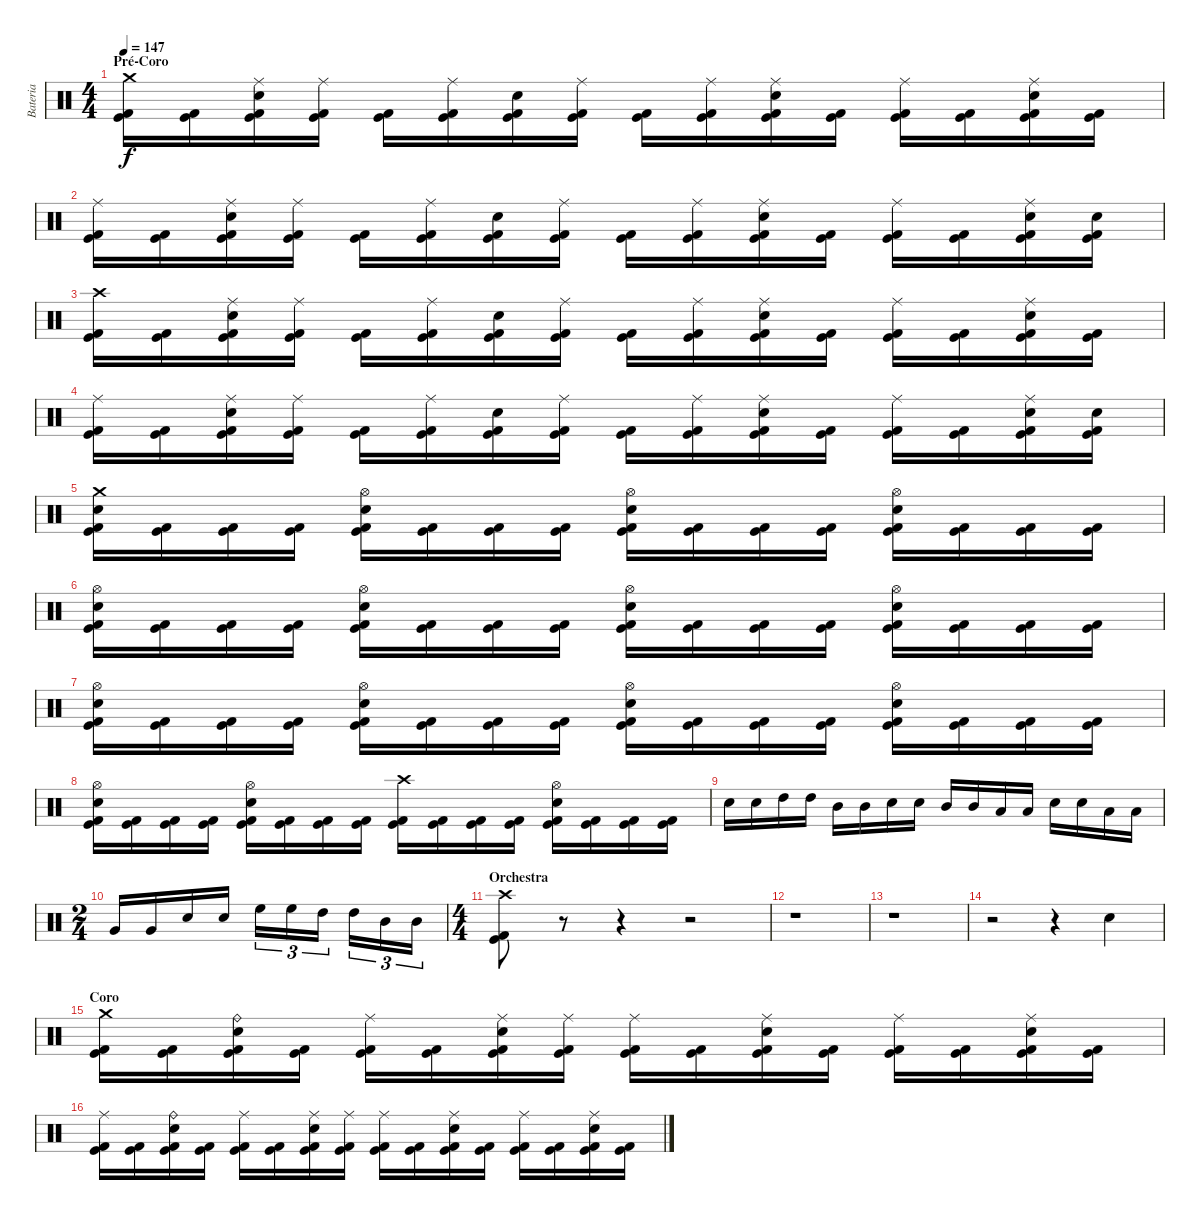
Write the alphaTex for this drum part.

\track ("Bateria" "Bateria") {instrument percussion}
\staff {score}
\articulation defaults
\ts (4 4)
\section ("" "Pré-Coro")
\tempo 147
\clef neutral
\ks c
("Crash medium (hit)" "Kick (hit)" "Kick (hit) 2").16{dy f} ("Kick (hit)" "Kick (hit) 2").16 ("Ride (middle)" "Electric Snare (hit)" "Kick (hit)" "Kick (hit) 2").16 ("Ride (middle)" "Kick (hit)" "Kick (hit) 2").16 ("Kick (hit)" "Kick (hit) 2").16 ("Ride (middle)" "Kick (hit)" "Kick (hit) 2").16 ("Electric Snare (hit)" "Kick (hit)" "Kick (hit) 2").16 ("Ride (middle)" "Kick (hit)" "Kick (hit) 2").16 ("Kick (hit)" "Kick (hit) 2").16 ("Ride (middle)" "Kick (hit)" "Kick (hit) 2").16 ("Ride (middle)" "Electric Snare (hit)" "Kick (hit)" "Kick (hit) 2").16 ("Kick (hit)" "Kick (hit) 2").16 ("Ride (middle)" "Kick (hit)" "Kick (hit) 2").16 ("Kick (hit)" "Kick (hit) 2").16 ("Ride (middle)" "Electric Snare (hit)" "Kick (hit)" "Kick (hit) 2").16 ("Kick (hit)" "Kick (hit) 2").16 |
("Ride (middle)" "Kick (hit)" "Kick (hit) 2").16 ("Kick (hit)" "Kick (hit) 2").16 ("Ride (middle)" "Electric Snare (hit)" "Kick (hit)" "Kick (hit) 2").16 ("Ride (middle)" "Kick (hit)" "Kick (hit) 2").16 ("Kick (hit)" "Kick (hit) 2").16 ("Ride (middle)" "Kick (hit)" "Kick (hit) 2").16 ("Electric Snare (hit)" "Kick (hit)" "Kick (hit) 2").16 ("Ride (middle)" "Kick (hit)" "Kick (hit) 2").16 ("Kick (hit)" "Kick (hit) 2").16 ("Ride (middle)" "Kick (hit)" "Kick (hit) 2").16 ("Ride (middle)" "Electric Snare (hit)" "Kick (hit)" "Kick (hit) 2").16 ("Kick (hit)" "Kick (hit) 2").16 ("Ride (middle)" "Kick (hit)" "Kick (hit) 2").16 ("Kick (hit)" "Kick (hit) 2").16 ("Ride (middle)" "Electric Snare (hit)" "Kick (hit)" "Kick (hit) 2").16 ("Electric Snare (hit)" "Kick (hit)" "Kick (hit) 2").16 |
("Crash high (hit)" "Kick (hit)" "Kick (hit) 2").16 ("Kick (hit)" "Kick (hit) 2").16 ("Ride (middle)" "Electric Snare (hit)" "Kick (hit)" "Kick (hit) 2").16 ("Ride (middle)" "Kick (hit)" "Kick (hit) 2").16 ("Kick (hit)" "Kick (hit) 2").16 ("Ride (middle)" "Kick (hit)" "Kick (hit) 2").16 ("Electric Snare (hit)" "Kick (hit)" "Kick (hit) 2").16 ("Ride (middle)" "Kick (hit)" "Kick (hit) 2").16 ("Kick (hit)" "Kick (hit) 2").16 ("Ride (middle)" "Kick (hit)" "Kick (hit) 2").16 ("Ride (middle)" "Electric Snare (hit)" "Kick (hit)" "Kick (hit) 2").16 ("Kick (hit)" "Kick (hit) 2").16 ("Ride (middle)" "Kick (hit)" "Kick (hit) 2").16 ("Kick (hit)" "Kick (hit) 2").16 ("Ride (middle)" "Electric Snare (hit)" "Kick (hit)" "Kick (hit) 2").16 ("Kick (hit)" "Kick (hit) 2").16 |
("Ride (middle)" "Kick (hit)" "Kick (hit) 2").16 ("Kick (hit)" "Kick (hit) 2").16 ("Ride (middle)" "Electric Snare (hit)" "Kick (hit)" "Kick (hit) 2").16 ("Ride (middle)" "Kick (hit)" "Kick (hit) 2").16 ("Kick (hit)" "Kick (hit) 2").16 ("Ride (middle)" "Kick (hit)" "Kick (hit) 2").16 ("Electric Snare (hit)" "Kick (hit)" "Kick (hit) 2").16 ("Ride (middle)" "Kick (hit)" "Kick (hit) 2").16 ("Kick (hit)" "Kick (hit) 2").16 ("Ride (middle)" "Kick (hit)" "Kick (hit) 2").16 ("Ride (middle)" "Electric Snare (hit)" "Kick (hit)" "Kick (hit) 2").16 ("Kick (hit)" "Kick (hit) 2").16 ("Ride (middle)" "Kick (hit)" "Kick (hit) 2").16 ("Kick (hit)" "Kick (hit) 2").16 ("Ride (middle)" "Electric Snare (hit)" "Kick (hit)" "Kick (hit) 2").16 ("Electric Snare (hit)" "Kick (hit)" "Kick (hit) 2").16 |
("Crash medium (hit)" "Electric Snare (hit)" "Kick (hit)" "Kick (hit) 2").16 ("Kick (hit)" "Kick (hit) 2").16 ("Kick (hit)" "Kick (hit) 2").16 ("Kick (hit)" "Kick (hit) 2").16 ("Hi-Hat (open)" "Electric Snare (hit)" "Kick (hit)" "Kick (hit) 2").16 ("Kick (hit)" "Kick (hit) 2").16 ("Kick (hit)" "Kick (hit) 2").16 ("Kick (hit)" "Kick (hit) 2").16 ("Hi-Hat (open)" "Electric Snare (hit)" "Kick (hit)" "Kick (hit) 2").16 ("Kick (hit)" "Kick (hit) 2").16 ("Kick (hit)" "Kick (hit) 2").16 ("Kick (hit)" "Kick (hit) 2").16 ("Hi-Hat (open)" "Electric Snare (hit)" "Kick (hit)" "Kick (hit) 2").16 ("Kick (hit)" "Kick (hit) 2").16 ("Kick (hit)" "Kick (hit) 2").16 ("Kick (hit)" "Kick (hit) 2").16 |
("Hi-Hat (open)" "Electric Snare (hit)" "Kick (hit)" "Kick (hit) 2").16 ("Kick (hit)" "Kick (hit) 2").16 ("Kick (hit)" "Kick (hit) 2").16 ("Kick (hit)" "Kick (hit) 2").16 ("Hi-Hat (open)" "Electric Snare (hit)" "Kick (hit)" "Kick (hit) 2").16 ("Kick (hit)" "Kick (hit) 2").16 ("Kick (hit)" "Kick (hit) 2").16 ("Kick (hit)" "Kick (hit) 2").16 ("Hi-Hat (open)" "Electric Snare (hit)" "Kick (hit)" "Kick (hit) 2").16 ("Kick (hit)" "Kick (hit) 2").16 ("Kick (hit)" "Kick (hit) 2").16 ("Kick (hit)" "Kick (hit) 2").16 ("Hi-Hat (open)" "Electric Snare (hit)" "Kick (hit)" "Kick (hit) 2").16 ("Kick (hit)" "Kick (hit) 2").16 ("Kick (hit)" "Kick (hit) 2").16 ("Kick (hit)" "Kick (hit) 2").16 |
("Hi-Hat (open)" "Electric Snare (hit)" "Kick (hit)" "Kick (hit) 2").16 ("Kick (hit)" "Kick (hit) 2").16 ("Kick (hit)" "Kick (hit) 2").16 ("Kick (hit)" "Kick (hit) 2").16 ("Hi-Hat (open)" "Electric Snare (hit)" "Kick (hit)" "Kick (hit) 2").16 ("Kick (hit)" "Kick (hit) 2").16 ("Kick (hit)" "Kick (hit) 2").16 ("Kick (hit)" "Kick (hit) 2").16 ("Hi-Hat (open)" "Electric Snare (hit)" "Kick (hit)" "Kick (hit) 2").16 ("Kick (hit)" "Kick (hit) 2").16 ("Kick (hit)" "Kick (hit) 2").16 ("Kick (hit)" "Kick (hit) 2").16 ("Hi-Hat (open)" "Electric Snare (hit)" "Kick (hit)" "Kick (hit) 2").16 ("Kick (hit)" "Kick (hit) 2").16 ("Kick (hit)" "Kick (hit) 2").16 ("Kick (hit)" "Kick (hit) 2").16 |
("Hi-Hat (open)" "Electric Snare (hit)" "Kick (hit)" "Kick (hit) 2").16 ("Kick (hit)" "Kick (hit) 2").16 ("Kick (hit)" "Kick (hit) 2").16 ("Kick (hit)" "Kick (hit) 2").16 ("Hi-Hat (open)" "Electric Snare (hit)" "Kick (hit)" "Kick (hit) 2").16 ("Kick (hit)" "Kick (hit) 2").16 ("Kick (hit)" "Kick (hit) 2").16 ("Kick (hit)" "Kick (hit) 2").16 ("Crash high (hit)" "Kick (hit)" "Kick (hit) 2").16 ("Kick (hit)" "Kick (hit) 2").16 ("Kick (hit)" "Kick (hit) 2").16 ("Kick (hit)" "Kick (hit) 2").16 ("Hi-Hat (open)" "Electric Snare (hit)" "Kick (hit)" "Kick (hit) 2").16 ("Kick (hit)" "Kick (hit) 2").16 ("Kick (hit)" "Kick (hit) 2").16 ("Kick (hit)" "Kick (hit) 2").16 |
"Electric Snare (hit)".16 "Electric Snare (hit)".16 "High Tom (hit)".16 "High Tom (hit)".16 "Mid Tom (hit)".16 "Mid Tom (hit)".16 "Electric Snare (hit)".16 "Electric Snare (hit)".16 "Mid Tom (hit)".16 "Mid Tom (hit)".16 "Low Tom (hit)".16 "Low Tom (hit)".16 "Electric Snare (hit)".16 "Electric Snare (hit)".16 "Low Tom (hit)".16 "Low Tom (hit)".16 |
\ts (2 4)
"Very Low Tom (hit)".16 "Very Low Tom (hit)".16 "Electric Snare (hit)".16 "Electric Snare (hit)".16 "High Floor Tom (hit)".16{tu (3 2)} "High Floor Tom (hit)".16{tu (3 2)} "High Tom (hit)".16{tu (3 2)} "High Tom (hit)".16{tu (3 2)} "Mid Tom (hit)".16{tu (3 2)} "Mid Tom (hit)".16{tu (3 2)} |
\ts (4 4)
\section ("" "Orchestra")
("Crash high (hit)" "Kick (hit)" "Kick (hit) 2").8 r.8{volume 0} r.4 r.2 |
r.1 |
r.1 |
r.2{volume 16} r.4 "Electric Snare (hit)".4 |
\section ("" "Coro")
("Crash medium (hit)" "Kick (hit)" "Kick (hit) 2").16 ("Kick (hit)" "Kick (hit) 2").16 ("Ride (bell)" "Electric Snare (hit)" "Kick (hit)" "Kick (hit) 2").16 ("Kick (hit)" "Kick (hit) 2").16 ("Ride (middle)" "Kick (hit)" "Kick (hit) 2").16 ("Kick (hit)" "Kick (hit) 2").16 ("Ride (middle)" "Electric Snare (hit)" "Kick (hit)" "Kick (hit) 2").16 ("Ride (middle)" "Kick (hit)" "Kick (hit) 2").16 ("Ride (middle)" "Kick (hit)" "Kick (hit) 2").16 ("Kick (hit)" "Kick (hit) 2").16 ("Ride (middle)" "Electric Snare (hit)" "Kick (hit)" "Kick (hit) 2").16 ("Kick (hit)" "Kick (hit) 2").16 ("Ride (middle)" "Kick (hit)" "Kick (hit) 2").16 ("Kick (hit)" "Kick (hit) 2").16 ("Ride (middle)" "Electric Snare (hit)" "Kick (hit)" "Kick (hit) 2").16 ("Kick (hit)" "Kick (hit) 2").16 |
("Ride (middle)" "Kick (hit)" "Kick (hit) 2").16 ("Kick (hit)" "Kick (hit) 2").16 ("Ride (bell)" "Electric Snare (hit)" "Kick (hit)" "Kick (hit) 2").16 ("Kick (hit)" "Kick (hit) 2").16 ("Ride (middle)" "Kick (hit)" "Kick (hit) 2").16 ("Kick (hit)" "Kick (hit) 2").16 ("Ride (middle)" "Electric Snare (hit)" "Kick (hit)" "Kick (hit) 2").16 ("Ride (middle)" "Kick (hit)" "Kick (hit) 2").16 ("Ride (middle)" "Kick (hit)" "Kick (hit) 2").16 ("Kick (hit)" "Kick (hit) 2").16 ("Ride (middle)" "Electric Snare (hit)" "Kick (hit)" "Kick (hit) 2").16 ("Kick (hit)" "Kick (hit) 2").16 ("Ride (middle)" "Kick (hit)" "Kick (hit) 2").16 ("Kick (hit)" "Kick (hit) 2").16 ("Ride (middle)" "Electric Snare (hit)" "Kick (hit)" "Kick (hit) 2").16 ("Kick (hit)" "Kick (hit) 2").16
